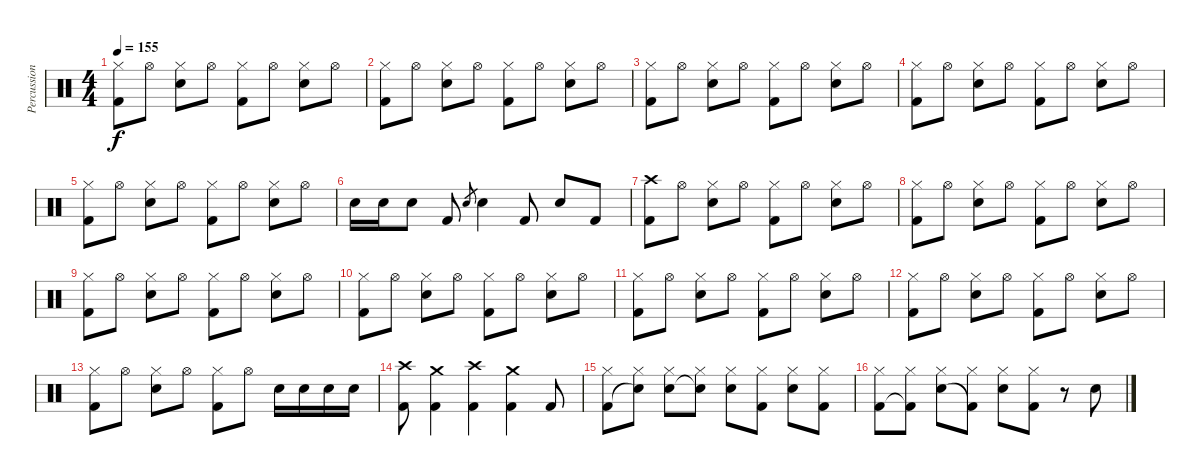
\track ("Percussion" "Percussion") {instrument percussion}
\staff {score}
\articulation defaults
\ts (4 4)
\tempo 155
\clef neutral
\ks c
("Hi-Hat (closed)" "Kick (hit) 2").8{dy f} "Hi-Hat (open)".8 ("Hi-Hat (closed)" "Electric Snare (hit)").8 "Hi-Hat (open)".8 ("Hi-Hat (closed)" "Kick (hit) 2").8 "Hi-Hat (open)".8 ("Hi-Hat (closed)" "Electric Snare (hit)").8 "Hi-Hat (open)".8 |
("Hi-Hat (closed)" "Kick (hit) 2").8 "Hi-Hat (open)".8 ("Hi-Hat (closed)" "Electric Snare (hit)").8 "Hi-Hat (open)".8 ("Hi-Hat (closed)" "Kick (hit) 2").8 "Hi-Hat (open)".8 ("Hi-Hat (closed)" "Electric Snare (hit)").8 "Hi-Hat (open)".8 |
("Hi-Hat (closed)" "Kick (hit) 2").8 "Hi-Hat (open)".8 ("Hi-Hat (closed)" "Electric Snare (hit)").8 "Hi-Hat (open)".8 ("Hi-Hat (closed)" "Kick (hit) 2").8 "Hi-Hat (open)".8 ("Hi-Hat (closed)" "Electric Snare (hit)").8 "Hi-Hat (open)".8 |
("Hi-Hat (closed)" "Kick (hit) 2").8 "Hi-Hat (open)".8 ("Hi-Hat (closed)" "Electric Snare (hit)").8 "Hi-Hat (open)".8 ("Hi-Hat (closed)" "Kick (hit) 2").8 "Hi-Hat (open)".8 ("Hi-Hat (closed)" "Electric Snare (hit)").8 "Hi-Hat (open)".8 |
("Hi-Hat (closed)" "Kick (hit) 2").8 "Hi-Hat (open)".8 ("Hi-Hat (closed)" "Electric Snare (hit)").8 "Hi-Hat (open)".8 ("Hi-Hat (closed)" "Kick (hit) 2").8 "Hi-Hat (open)".8 ("Hi-Hat (closed)" "Electric Snare (hit)").8 "Hi-Hat (open)".8 |
"Electric Snare (hit)".16 "Electric Snare (hit)".16 "Electric Snare (hit)".8 "Kick (hit) 2".8 "Electric Snare (hit)".8{gr} "Electric Snare (hit)".4 "Kick (hit) 2".8 "Electric Snare (hit)".8 "Kick (hit) 2".8 |
("Crash high (hit)" "Kick (hit) 2").8 "Hi-Hat (open)".8 ("Hi-Hat (closed)" "Electric Snare (hit)").8 "Hi-Hat (open)".8 ("Hi-Hat (closed)" "Kick (hit) 2").8 "Hi-Hat (open)".8 ("Hi-Hat (closed)" "Electric Snare (hit)").8 "Hi-Hat (open)".8 |
("Hi-Hat (closed)" "Kick (hit) 2").8 "Hi-Hat (open)".8 ("Hi-Hat (closed)" "Electric Snare (hit)").8 "Hi-Hat (open)".8 ("Hi-Hat (closed)" "Kick (hit) 2").8 "Hi-Hat (open)".8 ("Hi-Hat (closed)" "Electric Snare (hit)").8 "Hi-Hat (open)".8 |
("Hi-Hat (closed)" "Kick (hit) 2").8 "Hi-Hat (open)".8 ("Hi-Hat (closed)" "Electric Snare (hit)").8 "Hi-Hat (open)".8 ("Hi-Hat (closed)" "Kick (hit) 2").8 "Hi-Hat (open)".8 ("Hi-Hat (closed)" "Electric Snare (hit)").8 "Hi-Hat (open)".8 |
("Hi-Hat (closed)" "Kick (hit) 2").8 "Hi-Hat (open)".8 ("Hi-Hat (closed)" "Electric Snare (hit)").8 "Hi-Hat (open)".8 ("Hi-Hat (closed)" "Kick (hit) 2").8 "Hi-Hat (open)".8 ("Hi-Hat (closed)" "Electric Snare (hit)").8 "Hi-Hat (open)".8 |
("Hi-Hat (closed)" "Kick (hit) 2").8 "Hi-Hat (open)".8 ("Hi-Hat (closed)" "Electric Snare (hit)").8 "Hi-Hat (open)".8 ("Hi-Hat (closed)" "Kick (hit) 2").8 "Hi-Hat (open)".8 ("Hi-Hat (closed)" "Electric Snare (hit)").8 "Hi-Hat (open)".8 |
("Hi-Hat (closed)" "Kick (hit) 2").8 "Hi-Hat (open)".8 ("Hi-Hat (closed)" "Electric Snare (hit)").8 "Hi-Hat (open)".8 ("Hi-Hat (closed)" "Kick (hit) 2").8 "Hi-Hat (open)".8 ("Hi-Hat (closed)" "Electric Snare (hit)").8 "Hi-Hat (open)".8 |
("Hi-Hat (closed)" "Kick (hit) 2").8 "Hi-Hat (open)".8 ("Hi-Hat (closed)" "Electric Snare (hit)").8 "Hi-Hat (open)".8 ("Hi-Hat (closed)" "Kick (hit) 2").8 "Hi-Hat (open)".8 "Electric Snare (hit)".16 "Electric Snare (hit)".16 "Electric Snare (hit)".16 "Electric Snare (hit)".16 |
("Crash high (hit)" "Kick (hit) 2").8 ("Crash medium (hit)" "Kick (hit) 2").4 ("Crash high (hit)" "Kick (hit) 2").4 ("Crash medium (hit)" "Kick (hit) 2").4 "Kick (hit) 2".8 |
("Kick (hit) 2" "Hi-Hat (closed)").8 ("Electric Snare (hit)"{t} "Hi-Hat (closed)").8 ("Electric Snare (hit)" "Hi-Hat (closed)").8 ("Electric Snare (hit)"{t} "Hi-Hat (closed)").8 ("Electric Snare (hit)" "Hi-Hat (closed)").8 ("Kick (hit) 2" "Hi-Hat (closed)").8 ("Electric Snare (hit)" "Hi-Hat (closed)").8 ("Kick (hit) 2" "Hi-Hat (closed)").8 |
("Kick (hit) 2" "Hi-Hat (closed)").8 ("Kick (hit) 2"{t} "Hi-Hat (closed)").8 ("Electric Snare (hit)" "Hi-Hat (closed)").8 ("Kick (hit) 2"{t} "Hi-Hat (closed)").8 ("Electric Snare (hit)" "Hi-Hat (closed)").8 ("Kick (hit) 2" "Hi-Hat (closed)").8 r.8 "Electric Snare (hit)".8
